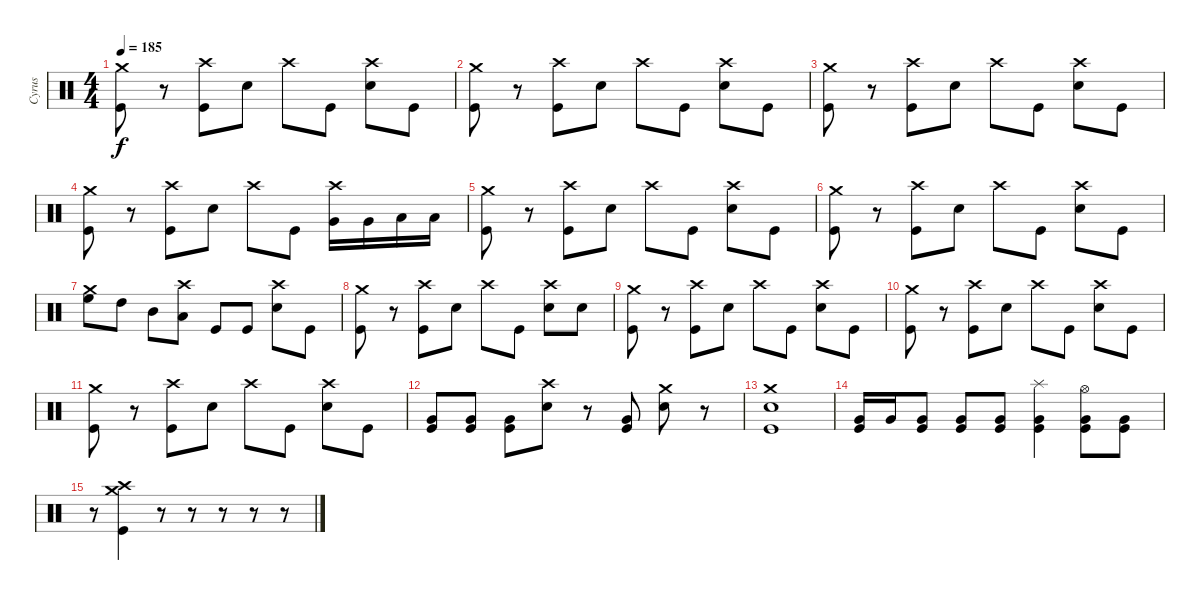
\track ("Cyrus" "Cyrus") {instrument percussion}
\staff {score}
\articulation defaults
\ts (4 4)
\tempo 185
\clef neutral
\ks c
("Crash medium (hit)" "Kick (hit)").8{dy f} r.8 ("Crash high (hit)" "Kick (hit)").8 "Electric Snare (hit)".8 "Crash high (hit)".8 "Kick (hit)".8 ("Crash high (hit)" "Electric Snare (hit)").8 "Kick (hit)".8 |
("Crash medium (hit)" "Kick (hit)").8 r.8 ("Crash high (hit)" "Kick (hit)").8 "Electric Snare (hit)".8 "Crash high (hit)".8 "Kick (hit)".8 ("Crash high (hit)" "Electric Snare (hit)").8 "Kick (hit)".8 |
("Crash medium (hit)" "Kick (hit)").8 r.8 ("Crash high (hit)" "Kick (hit)").8 "Electric Snare (hit)".8 "Crash high (hit)".8 "Kick (hit)".8 ("Crash high (hit)" "Electric Snare (hit)").8 "Kick (hit)".8 |
("Crash medium (hit)" "Kick (hit)").8 r.8 ("Crash high (hit)" "Kick (hit)").8 "Electric Snare (hit)".8 "Crash high (hit)".8 "Kick (hit)".8 ("Crash high (hit)" "Very Low Tom (hit)").16 "Very Low Tom (hit)".16 "Low Floor Tom (hit)".16 "Low Floor Tom (hit)".16 |
("Crash medium (hit)" "Kick (hit)").8 r.8 ("Crash high (hit)" "Kick (hit)").8 "Electric Snare (hit)".8 "Crash high (hit)".8 "Kick (hit)".8 ("Crash high (hit)" "Electric Snare (hit)").8 "Kick (hit)".8 |
("Crash medium (hit)" "Kick (hit)").8 r.8 ("Crash high (hit)" "Kick (hit)").8 "Electric Snare (hit)".8 "Crash high (hit)".8 "Kick (hit)".8 ("Crash high (hit)" "Electric Snare (hit)").8 "Kick (hit)".8 |
("Crash medium (hit)" "High Floor Tom (hit)").8 "High Tom (hit)".8 "Mid Tom (hit)".8 ("Crash high (hit)" "Low Tom (hit)").8 "Kick (hit)".8 "Kick (hit)".8 ("Crash high (hit)" "Electric Snare (hit)").8 "Kick (hit)".8 |
("Crash medium (hit)" "Kick (hit)").8 r.8 ("Crash high (hit)" "Kick (hit)").8 "Electric Snare (hit)".8 "Crash high (hit)".8 "Kick (hit)".8 ("Crash high (hit)" "Electric Snare (hit)").8 "Electric Snare (hit)".8 |
("Crash medium (hit)" "Kick (hit)").8 r.8 ("Crash high (hit)" "Kick (hit)").8 "Electric Snare (hit)".8 "Crash high (hit)".8 "Kick (hit)".8 ("Crash high (hit)" "Electric Snare (hit)").8 "Kick (hit)".8 |
("Crash medium (hit)" "Kick (hit)").8 r.8 ("Crash high (hit)" "Kick (hit)").8 "Electric Snare (hit)".8 "Crash high (hit)".8 "Kick (hit)".8 ("Crash high (hit)" "Electric Snare (hit)").8 "Kick (hit)".8 |
("Crash medium (hit)" "Kick (hit)").8 r.8 ("Crash high (hit)" "Kick (hit)").8 "Electric Snare (hit)".8 "Crash high (hit)".8 "Kick (hit)".8 ("Crash high (hit)" "Electric Snare (hit)").8 "Kick (hit)".8 |
("Very Low Tom (hit)" "Kick (hit)").8 ("Very Low Tom (hit)" "Kick (hit)").8 ("Very Low Tom (hit)" "Kick (hit)").8 ("Crash high (hit)" "Electric Snare (hit)").8 r.8 ("Very Low Tom (hit)" "Kick (hit)").8 ("Crash medium (hit)" "Electric Snare (hit)").8 r.8 |
("Crash medium (hit)" "Electric Snare (hit)" "Kick (hit)").1 |
("Very Low Tom (hit)" "Kick (hit)").16 "Very Low Tom (hit)".16 ("Very Low Tom (hit)" "Kick (hit)").8 ("Very Low Tom (hit)" "Kick (hit)").8 ("Very Low Tom (hit)" "Kick (hit)").8 ("Splash (hit)" "Very Low Tom (hit)" "Kick (hit)").4 ("Hi-Hat (open)" "Very Low Tom (hit)" "Kick (hit)").8 ("Very Low Tom (hit)" "Kick (hit)").8 |
r.8 ("Crash high (hit)" "Crash medium (hit)" "Kick (hit)").4 r.8 r.8 r.8 r.8 r.8
